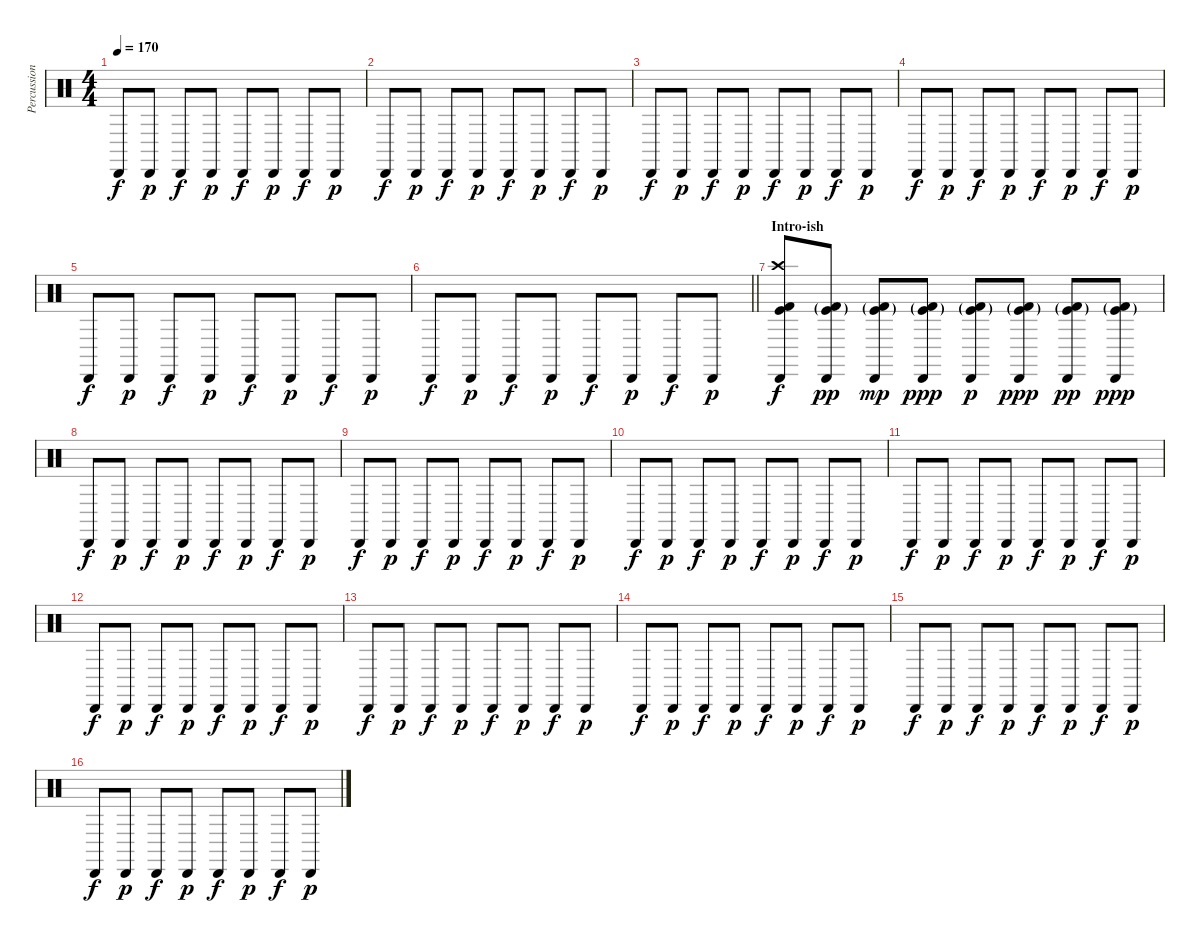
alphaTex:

\track ("Percussion" "Percussion") {instrument percussion}
\staff {score}
\articulation defaults
\ts (4 4)
\tempo 170
\clef neutral
\ks c "Cabasa (hit)".8{dy f} "Cabasa (hit)".8{dy p} "Cabasa (hit)".8{dy f} "Cabasa (hit)".8{dy p} "Cabasa (hit)".8{dy f} "Cabasa (hit)".8{dy p} "Cabasa (hit)".8{dy f} "Cabasa (hit)".8{dy p}
|
"Cabasa (hit)".8{dy f} "Cabasa (hit)".8{dy p} "Cabasa (hit)".8{dy f} "Cabasa (hit)".8{dy p} "Cabasa (hit)".8{dy f} "Cabasa (hit)".8{dy p} "Cabasa (hit)".8{dy f} "Cabasa (hit)".8{dy p} |
"Cabasa (hit)".8{dy f} "Cabasa (hit)".8{dy p} "Cabasa (hit)".8{dy f} "Cabasa (hit)".8{dy p} "Cabasa (hit)".8{dy f} "Cabasa (hit)".8{dy p} "Cabasa (hit)".8{dy f} "Cabasa (hit)".8{dy p} |
"Cabasa (hit)".8{dy f} "Cabasa (hit)".8{dy p} "Cabasa (hit)".8{dy f} "Cabasa (hit)".8{dy p} "Cabasa (hit)".8{dy f} "Cabasa (hit)".8{dy p} "Cabasa (hit)".8{dy f} "Cabasa (hit)".8{dy p} |
"Cabasa (hit)".8{dy f} "Cabasa (hit)".8{dy p} "Cabasa (hit)".8{dy f} "Cabasa (hit)".8{dy p} "Cabasa (hit)".8{dy f} "Cabasa (hit)".8{dy p} "Cabasa (hit)".8{dy f} "Cabasa (hit)".8{dy p} |
\barLineRight lightlight "Cabasa (hit)".8{dy f} "Cabasa (hit)".8{dy p} "Cabasa (hit)".8{dy f} "Cabasa (hit)".8{dy p} "Cabasa (hit)".8{dy f} "Cabasa (hit)".8{dy p} "Cabasa (hit)".8{dy f} "Cabasa (hit)".8{dy p}
|
\section ("" "Intro-ish")
("Cabasa (hit)" "Kick (hit)" "Kick (hit) 2" "Crash high (hit)").8{dy f} ("Cabasa (hit)" "Kick (hit)"{g} "Kick (hit) 2"{g}).8{dy pp} ("Cabasa (hit)" "Kick (hit)"{g} "Kick (hit) 2"{g}).8{dy mp} ("Cabasa (hit)" "Kick (hit)"{g} "Kick (hit) 2"{g}).8{dy ppp} ("Cabasa (hit)" "Kick (hit)"{g} "Kick (hit) 2"{g}).8{dy p} ("Cabasa (hit)" "Kick (hit)"{g} "Kick (hit) 2"{g}).8{dy ppp} ("Cabasa (hit)" "Kick (hit)"{g} "Kick (hit) 2"{g}).8{dy pp} ("Cabasa (hit)" "Kick (hit)"{g} "Kick (hit) 2"{g}).8{dy ppp} |
"Cabasa (hit)".8{dy f} "Cabasa (hit)".8{dy p} "Cabasa (hit)".8{dy f} "Cabasa (hit)".8{dy p} "Cabasa (hit)".8{dy f} "Cabasa (hit)".8{dy p} "Cabasa (hit)".8{dy f} "Cabasa (hit)".8{dy p} |
"Cabasa (hit)".8{dy f} "Cabasa (hit)".8{dy p} "Cabasa (hit)".8{dy f} "Cabasa (hit)".8{dy p} "Cabasa (hit)".8{dy f} "Cabasa (hit)".8{dy p} "Cabasa (hit)".8{dy f} "Cabasa (hit)".8{dy p} |
"Cabasa (hit)".8{dy f} "Cabasa (hit)".8{dy p} "Cabasa (hit)".8{dy f} "Cabasa (hit)".8{dy p} "Cabasa (hit)".8{dy f} "Cabasa (hit)".8{dy p} "Cabasa (hit)".8{dy f} "Cabasa (hit)".8{dy p} |
"Cabasa (hit)".8{dy f} "Cabasa (hit)".8{dy p} "Cabasa (hit)".8{dy f} "Cabasa (hit)".8{dy p} "Cabasa (hit)".8{dy f} "Cabasa (hit)".8{dy p} "Cabasa (hit)".8{dy f} "Cabasa (hit)".8{dy p} |
"Cabasa (hit)".8{dy f} "Cabasa (hit)".8{dy p} "Cabasa (hit)".8{dy f} "Cabasa (hit)".8{dy p} "Cabasa (hit)".8{dy f} "Cabasa (hit)".8{dy p} "Cabasa (hit)".8{dy f} "Cabasa (hit)".8{dy p} |
"Cabasa (hit)".8{dy f} "Cabasa (hit)".8{dy p} "Cabasa (hit)".8{dy f} "Cabasa (hit)".8{dy p} "Cabasa (hit)".8{dy f} "Cabasa (hit)".8{dy p} "Cabasa (hit)".8{dy f} "Cabasa (hit)".8{dy p} |
"Cabasa (hit)".8{dy f} "Cabasa (hit)".8{dy p} "Cabasa (hit)".8{dy f} "Cabasa (hit)".8{dy p} "Cabasa (hit)".8{dy f} "Cabasa (hit)".8{dy p} "Cabasa (hit)".8{dy f} "Cabasa (hit)".8{dy p} |
"Cabasa (hit)".8{dy f} "Cabasa (hit)".8{dy p} "Cabasa (hit)".8{dy f} "Cabasa (hit)".8{dy p} "Cabasa (hit)".8{dy f} "Cabasa (hit)".8{dy p} "Cabasa (hit)".8{dy f} "Cabasa (hit)".8{dy p} |
"Cabasa (hit)".8{dy f} "Cabasa (hit)".8{dy p} "Cabasa (hit)".8{dy f} "Cabasa (hit)".8{dy p} "Cabasa (hit)".8{dy f} "Cabasa (hit)".8{dy p} "Cabasa (hit)".8{dy f} "Cabasa (hit)".8{dy p}
